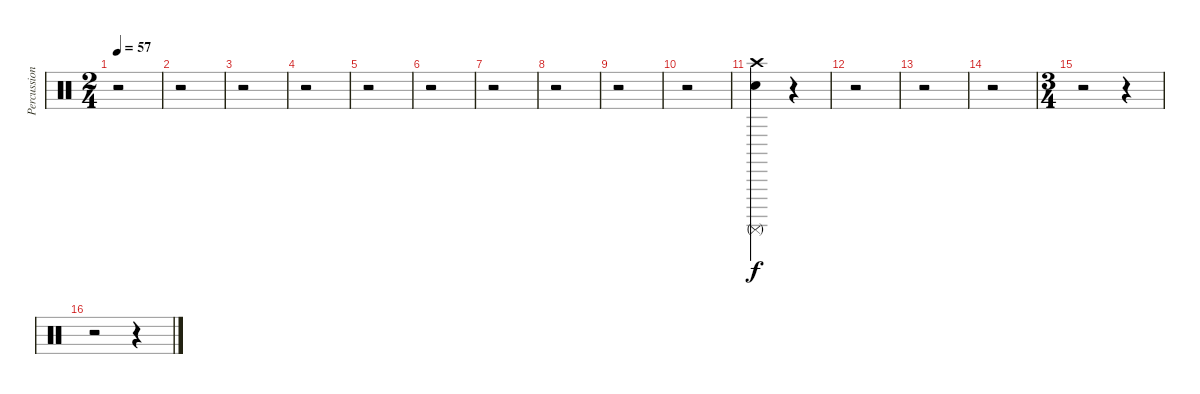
\track ("Percussions" "Percussion") {instrument percussion}
\staff {score}
\articulation defaults
\ts (2 4)
\tempo 57
\clef neutral
\ks c
r.2{dy f} |
r.2 |
r.2 |
r.2 |
r.2 |
r.2 |
r.2 |
r.2 |
r.2 |
r.2 |
("Crash high (hit)" "Surdo (mute)" "Snare (hit) 2").4 r.4 |
r.2 |
r.2 |
r.2 |
\ts (3 4)
r.2 r.4 |
r.2 r.4
